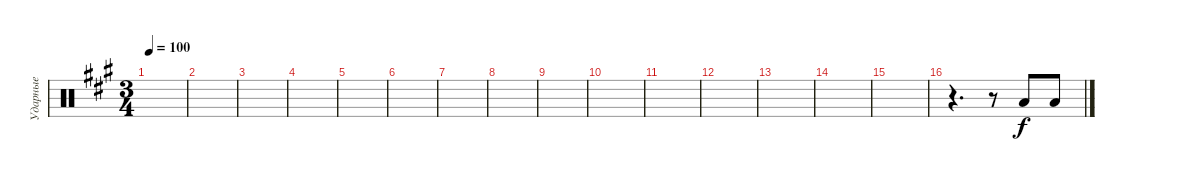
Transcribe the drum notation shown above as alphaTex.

\track ("Ударные" "Ударные") {instrument percussion}
\staff {score}
\articulation defaults
\ts (3 4)
\tempo 100
\clef neutral
\ks f#minor
|
|
|
|
|
|
|
|
|
|
|
|
|
|
|
r.4{d} r.8 "Low Floor Tom (hit)".8 "Low Floor Tom (hit)".8
